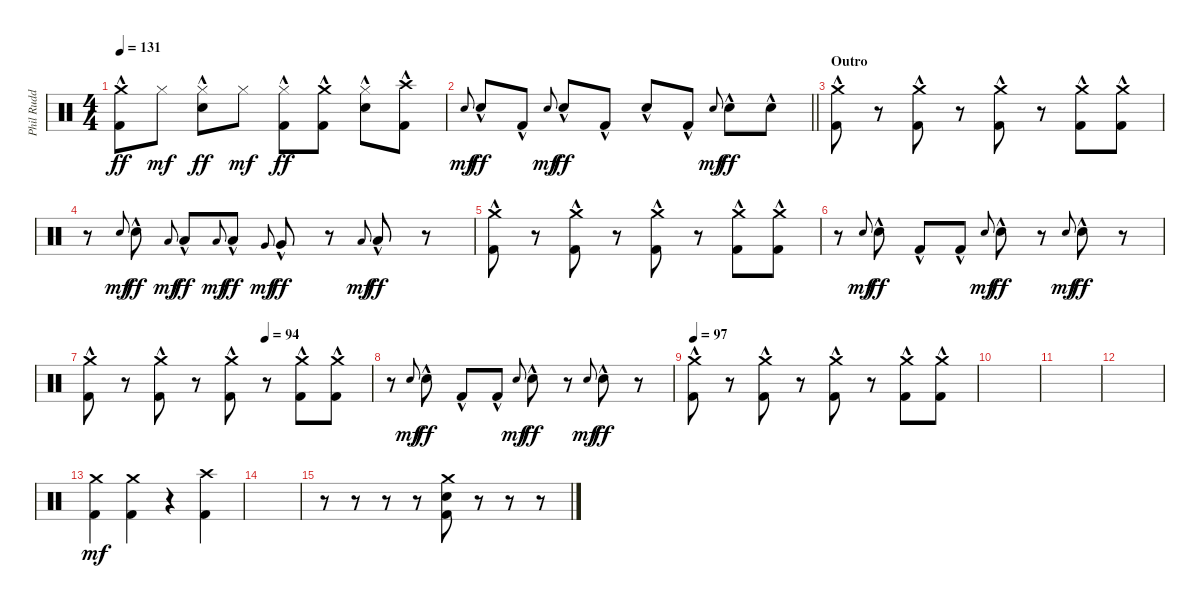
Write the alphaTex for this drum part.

\track ("Phil Rudd" "Phil Rudd") {instrument percussion}
\staff {score}
\articulation defaults
\ts (4 4)
\tempo 131
\clef neutral
\ks c
("Crash medium (hit)" "Kick (hit) 2"{hac}).8{dy ff} "Hi-Hat (closed)".8{dy mf} ("Hi-Hat (closed)" "Electric Snare (hit)"{hac}).8{dy ff} "Hi-Hat (closed)".8{dy mf} ("Hi-Hat (closed)" "Kick (hit) 2"{hac}).8{dy ff} ("Crash medium (hit)" "Kick (hit) 2"{hac}).8 ("Hi-Hat (closed)" "Electric Snare (hit)"{hac}).8 ("Crash high (hit)" "Kick (hit) 2"{hac}).8 |
\barLineRight lightlight "Electric Snare (hit)".8{gr onbeat dy mf} "Electric Snare (hit)"{hac}.8{dy ff} "Kick (hit) 2"{hac}.8 "Electric Snare (hit)".8{gr onbeat dy mf} "Electric Snare (hit)"{hac}.8{dy ff} "Kick (hit) 2"{hac}.8 "Electric Snare (hit)"{hac}.8 "Kick (hit) 2"{hac}.8 "Electric Snare (hit)".8{gr onbeat dy mf} "Electric Snare (hit)"{hac}.8{dy ff} "Electric Snare (hit)"{hac}.8
|
\section ("" "Outro")
("Crash medium (hit)" "Kick (hit) 2"{hac}).8 r.8 ("Crash medium (hit)" "Kick (hit) 2"{hac}).8 r.8 ("Crash medium (hit)" "Kick (hit) 2"{hac}).8 r.8 ("Crash medium (hit)" "Kick (hit) 2"{hac}).8 ("Crash medium (hit)" "Kick (hit) 2"{hac}).8 |
r.8 "Electric Snare (hit)".8{gr onbeat dy mf} "Electric Snare (hit)"{hac}.8{dy ff} "Low Tom (hit)".8{gr onbeat dy mf} "Low Tom (hit)"{hac}.8{dy ff} "Low Tom (hit)".8{gr onbeat dy mf} "Low Tom (hit)"{hac}.8{dy ff} "Very Low Tom (hit)".8{gr onbeat dy mf} "Very Low Tom (hit)"{hac}.8{dy ff} r.8 "Low Floor Tom (hit)".8{gr onbeat dy mf} "Low Floor Tom (hit)"{hac}.8{dy ff} r.8 |
("Crash medium (hit)" "Kick (hit) 2"{hac}).8 r.8 ("Crash medium (hit)" "Kick (hit) 2"{hac}).8 r.8 ("Crash medium (hit)" "Kick (hit) 2"{hac}).8 r.8 ("Crash medium (hit)" "Kick (hit) 2"{hac}).8 ("Crash medium (hit)" "Kick (hit) 2"{hac}).8 |
r.8 "Electric Snare (hit)".8{gr onbeat dy mf} "Electric Snare (hit)"{hac}.8{dy ff} "Kick (hit) 2"{hac}.8 "Kick (hit) 2"{hac}.8 "Electric Snare (hit)".8{gr onbeat dy mf} "Electric Snare (hit)"{hac}.8{dy ff} r.8 "Electric Snare (hit)".8{gr onbeat dy mf} "Electric Snare (hit)"{hac}.8{dy ff} r.8 |
\tempo (94 0.625)
("Crash medium (hit)" "Kick (hit) 2"{hac}).8 r.8 ("Crash medium (hit)" "Kick (hit) 2"{hac}).8 r.8 ("Crash medium (hit)" "Kick (hit) 2"{hac}).8 r.8 ("Crash medium (hit)" "Kick (hit) 2"{hac}).8 ("Crash medium (hit)" "Kick (hit) 2"{hac}).8 |
r.8 "Electric Snare (hit)".8{gr onbeat dy mf} "Electric Snare (hit)"{hac}.8{dy ff} "Kick (hit) 2"{hac}.8 "Kick (hit) 2"{hac}.8 "Electric Snare (hit)".8{gr onbeat dy mf} "Electric Snare (hit)"{hac}.8{dy ff} r.8 "Electric Snare (hit)".8{gr onbeat dy mf} "Electric Snare (hit)"{hac}.8{dy ff} r.8 |
\tempo 97
("Crash medium (hit)" "Kick (hit) 2"{hac}).8 r.8 ("Crash medium (hit)" "Kick (hit) 2"{hac}).8 r.8 ("Crash medium (hit)" "Kick (hit) 2"{hac}).8 r.8 ("Crash medium (hit)" "Kick (hit) 2"{hac}).8 ("Crash medium (hit)" "Kick (hit) 2"{hac}).8 |
|
|
|
("Crash medium (hit)" "Kick (hit) 2").4{dy mf} ("Crash medium (hit)" "Kick (hit) 2").4 r.4 ("Crash high (hit)" "Kick (hit) 2").4 |
|
r.8 r.8 r.8 r.8 ("Crash medium (hit)" "Electric Snare (hit)" "Kick (hit) 2").8 r.8 r.8 r.8
